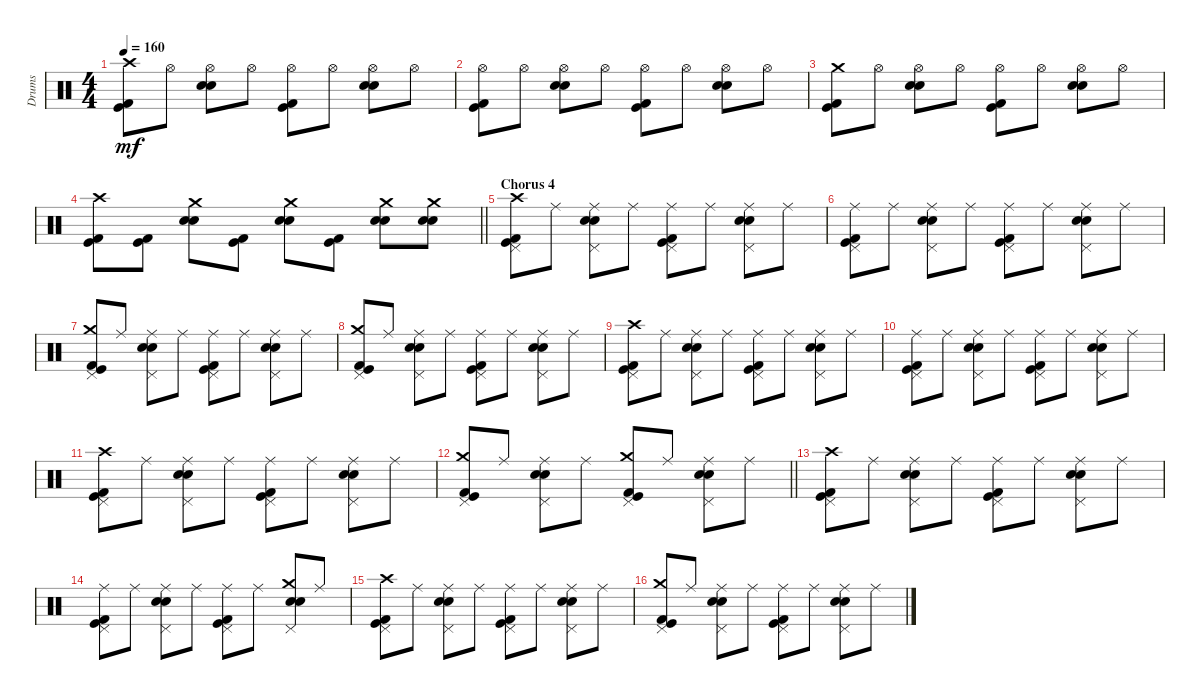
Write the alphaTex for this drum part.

\track ("Drums" "Drums") {instrument percussion}
\staff {score}
\articulation defaults
\ts (4 4)
\tempo 160
\clef neutral
\ks c
("Crash high (hit)" "Kick (hit) 2" "Kick (hit)").8{dy mf} "Hi-Hat (open)".8 ("Hi-Hat (open)" "Snare (hit) 2" "Electric Snare (hit)").8 "Hi-Hat (open)".8 ("Hi-Hat (open)" "Kick (hit) 2" "Kick (hit)").8 "Hi-Hat (open)".8 ("Hi-Hat (open)" "Snare (hit) 2" "Electric Snare (hit)").8 "Hi-Hat (open)".8 |
("Hi-Hat (open)" "Kick (hit) 2" "Kick (hit)").8 "Hi-Hat (open)".8 ("Hi-Hat (open)" "Snare (hit) 2" "Electric Snare (hit)").8 "Hi-Hat (open)".8 ("Hi-Hat (open)" "Kick (hit) 2" "Kick (hit)").8 "Hi-Hat (open)".8 ("Hi-Hat (open)" "Snare (hit) 2" "Electric Snare (hit)").8 "Hi-Hat (open)".8 |
("Crash medium (hit)" "Kick (hit) 2" "Kick (hit)").8 "Hi-Hat (open)".8 ("Hi-Hat (open)" "Snare (hit) 2" "Electric Snare (hit)").8 "Hi-Hat (open)".8 ("Hi-Hat (open)" "Kick (hit) 2" "Kick (hit)").8 "Hi-Hat (open)".8 ("Hi-Hat (open)" "Snare (hit) 2" "Electric Snare (hit)").8 "Hi-Hat (open)".8 |
\barLineRight lightlight
("Crash high (hit)" "Kick (hit) 2" "Kick (hit)").8 ("Kick (hit) 2" "Kick (hit)").8 ("Crash medium (hit)" "Snare (hit) 2" "Electric Snare (hit)").8 ("Kick (hit) 2" "Kick (hit)").8 ("Crash medium (hit)" "Snare (hit) 2" "Electric Snare (hit)").8 ("Kick (hit) 2" "Kick (hit)").8 ("Crash medium (hit)" "Snare (hit) 2" "Electric Snare (hit)").8 ("Crash medium (hit)" "Snare (hit) 2" "Electric Snare (hit)").8 |
\section ("" "Chorus 4")
("Crash high (hit)" "Pedal Hi-Hat (hit)" "Kick (hit) 2" "Kick (hit)").8 "Ride (middle)".8 ("Ride (middle)" "Pedal Hi-Hat (hit)" "Snare (hit) 2" "Electric Snare (hit)").8 "Ride (middle)".8 ("Ride (middle)" "Pedal Hi-Hat (hit)" "Kick (hit) 2" "Kick (hit)").8 "Ride (middle)".8 ("Ride (middle)" "Pedal Hi-Hat (hit)" "Snare (hit) 2" "Electric Snare (hit)").8 "Ride (middle)".8 |
("Ride (middle)" "Pedal Hi-Hat (hit)" "Kick (hit) 2" "Kick (hit)").8 "Ride (middle)".8 ("Ride (middle)" "Pedal Hi-Hat (hit)" "Snare (hit) 2" "Electric Snare (hit)").8 "Ride (middle)".8 ("Ride (middle)" "Pedal Hi-Hat (hit)" "Kick (hit) 2" "Kick (hit)").8 "Ride (middle)".8 ("Ride (middle)" "Pedal Hi-Hat (hit)" "Snare (hit) 2" "Electric Snare (hit)").8 "Ride (middle)".8 |
("Crash medium (hit)" "Pedal Hi-Hat (hit)" "Kick (hit) 2" "Kick (hit)").8 "Ride (middle)".8 ("Ride (middle)" "Pedal Hi-Hat (hit)" "Snare (hit) 2" "Electric Snare (hit)").8 "Ride (middle)".8 ("Ride (middle)" "Pedal Hi-Hat (hit)" "Kick (hit) 2" "Kick (hit)").8 "Ride (middle)".8 ("Ride (middle)" "Pedal Hi-Hat (hit)" "Snare (hit) 2" "Electric Snare (hit)").8 "Ride (middle)".8 |
("Crash medium (hit)" "Pedal Hi-Hat (hit)" "Kick (hit) 2" "Kick (hit)").8 "Ride (middle)".8 ("Ride (middle)" "Pedal Hi-Hat (hit)" "Snare (hit) 2" "Electric Snare (hit)").8 "Ride (middle)".8 ("Ride (middle)" "Pedal Hi-Hat (hit)" "Kick (hit) 2" "Kick (hit)").8 "Ride (middle)".8 ("Ride (middle)" "Pedal Hi-Hat (hit)" "Snare (hit) 2" "Electric Snare (hit)").8 "Ride (middle)".8 |
("Crash high (hit)" "Pedal Hi-Hat (hit)" "Kick (hit) 2" "Kick (hit)").8 "Ride (middle)".8 ("Ride (middle)" "Pedal Hi-Hat (hit)" "Snare (hit) 2" "Electric Snare (hit)").8 "Ride (middle)".8 ("Ride (middle)" "Pedal Hi-Hat (hit)" "Kick (hit) 2" "Kick (hit)").8 "Ride (middle)".8 ("Ride (middle)" "Pedal Hi-Hat (hit)" "Snare (hit) 2" "Electric Snare (hit)").8 "Ride (middle)".8 |
("Ride (middle)" "Pedal Hi-Hat (hit)" "Kick (hit) 2" "Kick (hit)").8 "Ride (middle)".8 ("Ride (middle)" "Pedal Hi-Hat (hit)" "Snare (hit) 2" "Electric Snare (hit)").8 "Ride (middle)".8 ("Ride (middle)" "Pedal Hi-Hat (hit)" "Kick (hit) 2" "Kick (hit)").8 "Ride (middle)".8 ("Ride (middle)" "Pedal Hi-Hat (hit)" "Snare (hit) 2" "Electric Snare (hit)").8 "Ride (middle)".8 |
("Crash high (hit)" "Pedal Hi-Hat (hit)" "Kick (hit) 2" "Kick (hit)").8 "Ride (middle)".8 ("Ride (middle)" "Pedal Hi-Hat (hit)" "Snare (hit) 2" "Electric Snare (hit)").8 "Ride (middle)".8 ("Ride (middle)" "Pedal Hi-Hat (hit)" "Kick (hit) 2" "Kick (hit)").8 "Ride (middle)".8 ("Ride (middle)" "Pedal Hi-Hat (hit)" "Snare (hit) 2" "Electric Snare (hit)").8 "Ride (middle)".8 |
\barLineRight lightlight
("Crash medium (hit)" "Pedal Hi-Hat (hit)" "Kick (hit) 2" "Kick (hit)").8 "Ride (middle)".8 ("Ride (middle)" "Pedal Hi-Hat (hit)" "Snare (hit) 2" "Electric Snare (hit)").8 "Ride (middle)".8 ("Crash medium (hit)" "Pedal Hi-Hat (hit)" "Kick (hit) 2" "Kick (hit)").8 "Ride (middle)".8 ("Ride (middle)" "Pedal Hi-Hat (hit)" "Snare (hit) 2" "Electric Snare (hit)").8 "Ride (middle)".8 |
("Crash high (hit)" "Pedal Hi-Hat (hit)" "Kick (hit) 2" "Kick (hit)").8 "Ride (middle)".8 ("Ride (middle)" "Pedal Hi-Hat (hit)" "Snare (hit) 2" "Electric Snare (hit)").8 "Ride (middle)".8 ("Ride (middle)" "Pedal Hi-Hat (hit)" "Kick (hit) 2" "Kick (hit)").8 "Ride (middle)".8 ("Ride (middle)" "Pedal Hi-Hat (hit)" "Snare (hit) 2" "Electric Snare (hit)").8 "Ride (middle)".8 |
("Ride (middle)" "Pedal Hi-Hat (hit)" "Kick (hit) 2" "Kick (hit)").8 "Ride (middle)".8 ("Ride (middle)" "Pedal Hi-Hat (hit)" "Snare (hit) 2" "Electric Snare (hit)").8 "Ride (middle)".8 ("Ride (middle)" "Pedal Hi-Hat (hit)" "Kick (hit) 2" "Kick (hit)").8 "Ride (middle)".8 ("Crash medium (hit)" "Pedal Hi-Hat (hit)" "Snare (hit) 2" "Electric Snare (hit)").8 "Ride (middle)".8 |
("Crash high (hit)" "Pedal Hi-Hat (hit)" "Kick (hit) 2" "Kick (hit)").8 "Ride (middle)".8 ("Ride (middle)" "Pedal Hi-Hat (hit)" "Snare (hit) 2" "Electric Snare (hit)").8 "Ride (middle)".8 ("Ride (middle)" "Pedal Hi-Hat (hit)" "Kick (hit) 2" "Kick (hit)").8 "Ride (middle)".8 ("Ride (middle)" "Pedal Hi-Hat (hit)" "Snare (hit) 2" "Electric Snare (hit)").8 "Ride (middle)".8 |
("Crash medium (hit)" "Pedal Hi-Hat (hit)" "Kick (hit) 2" "Kick (hit)").8 "Ride (middle)".8 ("Ride (middle)" "Pedal Hi-Hat (hit)" "Snare (hit) 2" "Electric Snare (hit)").8 "Ride (middle)".8 ("Ride (middle)" "Pedal Hi-Hat (hit)" "Kick (hit) 2" "Kick (hit)").8 "Ride (middle)".8 ("Ride (middle)" "Pedal Hi-Hat (hit)" "Snare (hit) 2" "Electric Snare (hit)").8 "Ride (middle)".8
